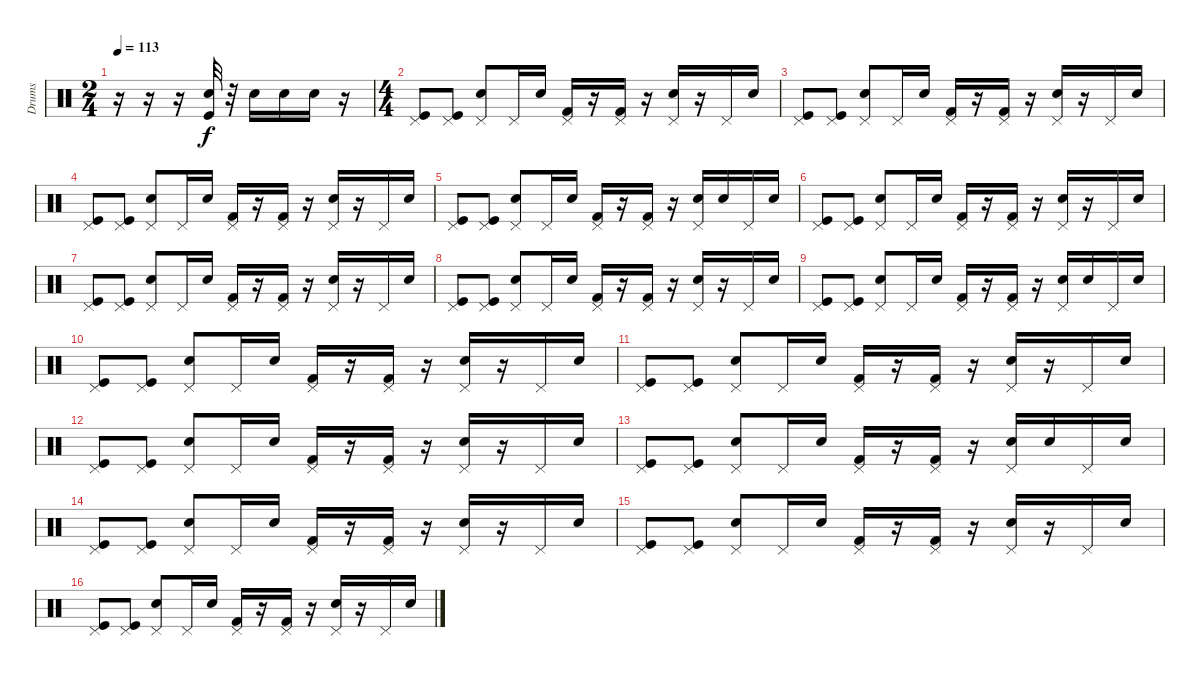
\track ("Drums" "Drums") {instrument percussion}
\staff {score}
\articulation defaults
\ts (2 4)
\tempo 113
\clef neutral
\ks c
r.16{dy f} r.16 r.16 ("Electric Snare (hit)" "Kick (hit)").32 r.32 "Electric Snare (hit)".16 "Electric Snare (hit)".16 "Electric Snare (hit)".16 r.16 |
\ts (4 4)
("Pedal Hi-Hat (hit)" "Kick (hit)").8 ("Pedal Hi-Hat (hit)" "Kick (hit)").8 ("Pedal Hi-Hat (hit)" "Electric Snare (hit)").8 "Pedal Hi-Hat (hit)".16 "Electric Snare (hit)".16 ("Pedal Hi-Hat (hit)" "Kick (hit) 2").16 r.16 ("Pedal Hi-Hat (hit)" "Kick (hit) 2").16 r.16 ("Pedal Hi-Hat (hit)" "Electric Snare (hit)").16 r.16 "Pedal Hi-Hat (hit)".16 "Electric Snare (hit)".16 |
("Pedal Hi-Hat (hit)" "Kick (hit)").8 ("Pedal Hi-Hat (hit)" "Kick (hit)").8 ("Pedal Hi-Hat (hit)" "Electric Snare (hit)").8 "Pedal Hi-Hat (hit)".16 "Electric Snare (hit)".16 ("Pedal Hi-Hat (hit)" "Kick (hit) 2").16 r.16 ("Pedal Hi-Hat (hit)" "Kick (hit) 2").16 r.16 ("Pedal Hi-Hat (hit)" "Electric Snare (hit)").16 r.16 "Pedal Hi-Hat (hit)".16 "Electric Snare (hit)".16 |
("Pedal Hi-Hat (hit)" "Kick (hit)").8 ("Pedal Hi-Hat (hit)" "Kick (hit)").8 ("Pedal Hi-Hat (hit)" "Electric Snare (hit)").8 "Pedal Hi-Hat (hit)".16 "Electric Snare (hit)".16 ("Pedal Hi-Hat (hit)" "Kick (hit) 2").16 r.16 ("Pedal Hi-Hat (hit)" "Kick (hit) 2").16 r.16 ("Pedal Hi-Hat (hit)" "Electric Snare (hit)").16 r.16 "Pedal Hi-Hat (hit)".16 "Electric Snare (hit)".16 |
("Pedal Hi-Hat (hit)" "Kick (hit)").8 ("Pedal Hi-Hat (hit)" "Kick (hit)").8 ("Pedal Hi-Hat (hit)" "Electric Snare (hit)").8 "Pedal Hi-Hat (hit)".16 "Electric Snare (hit)".16 ("Pedal Hi-Hat (hit)" "Kick (hit) 2").16 r.16 ("Pedal Hi-Hat (hit)" "Kick (hit) 2").16 r.16 ("Pedal Hi-Hat (hit)" "Electric Snare (hit)").16 "Electric Snare (hit)".16 "Pedal Hi-Hat (hit)".16 "Electric Snare (hit)".16 |
("Pedal Hi-Hat (hit)" "Kick (hit)").8 ("Pedal Hi-Hat (hit)" "Kick (hit)").8 ("Pedal Hi-Hat (hit)" "Electric Snare (hit)").8 "Pedal Hi-Hat (hit)".16 "Electric Snare (hit)".16 ("Pedal Hi-Hat (hit)" "Kick (hit) 2").16 r.16 ("Pedal Hi-Hat (hit)" "Kick (hit) 2").16 r.16 ("Pedal Hi-Hat (hit)" "Electric Snare (hit)").16 r.16 "Pedal Hi-Hat (hit)".16 "Electric Snare (hit)".16 |
("Pedal Hi-Hat (hit)" "Kick (hit)").8 ("Pedal Hi-Hat (hit)" "Kick (hit)").8 ("Pedal Hi-Hat (hit)" "Electric Snare (hit)").8 "Pedal Hi-Hat (hit)".16 "Electric Snare (hit)".16 ("Pedal Hi-Hat (hit)" "Kick (hit) 2").16 r.16 ("Pedal Hi-Hat (hit)" "Kick (hit) 2").16 r.16 ("Pedal Hi-Hat (hit)" "Electric Snare (hit)").16 r.16 "Pedal Hi-Hat (hit)".16 "Electric Snare (hit)".16 |
("Pedal Hi-Hat (hit)" "Kick (hit)").8 ("Pedal Hi-Hat (hit)" "Kick (hit)").8 ("Pedal Hi-Hat (hit)" "Electric Snare (hit)").8 "Pedal Hi-Hat (hit)".16 "Electric Snare (hit)".16 ("Pedal Hi-Hat (hit)" "Kick (hit) 2").16 r.16 ("Pedal Hi-Hat (hit)" "Kick (hit) 2").16 r.16 ("Pedal Hi-Hat (hit)" "Electric Snare (hit)").16 r.16 "Pedal Hi-Hat (hit)".16 "Electric Snare (hit)".16 |
("Pedal Hi-Hat (hit)" "Kick (hit)").8 ("Pedal Hi-Hat (hit)" "Kick (hit)").8 ("Pedal Hi-Hat (hit)" "Electric Snare (hit)").8 "Pedal Hi-Hat (hit)".16 "Electric Snare (hit)".16 ("Pedal Hi-Hat (hit)" "Kick (hit) 2").16 r.16 ("Pedal Hi-Hat (hit)" "Kick (hit) 2").16 r.16 ("Pedal Hi-Hat (hit)" "Electric Snare (hit)").16 "Electric Snare (hit)".16 "Pedal Hi-Hat (hit)".16 "Electric Snare (hit)".16 |
("Pedal Hi-Hat (hit)" "Kick (hit)").8 ("Pedal Hi-Hat (hit)" "Kick (hit)").8 ("Pedal Hi-Hat (hit)" "Electric Snare (hit)").8 "Pedal Hi-Hat (hit)".16 "Electric Snare (hit)".16 ("Pedal Hi-Hat (hit)" "Kick (hit) 2").16 r.16 ("Pedal Hi-Hat (hit)" "Kick (hit) 2").16 r.16 ("Pedal Hi-Hat (hit)" "Electric Snare (hit)").16 r.16 "Pedal Hi-Hat (hit)".16 "Electric Snare (hit)".16 |
("Pedal Hi-Hat (hit)" "Kick (hit)").8 ("Pedal Hi-Hat (hit)" "Kick (hit)").8 ("Pedal Hi-Hat (hit)" "Electric Snare (hit)").8 "Pedal Hi-Hat (hit)".16 "Electric Snare (hit)".16 ("Pedal Hi-Hat (hit)" "Kick (hit) 2").16 r.16 ("Pedal Hi-Hat (hit)" "Kick (hit) 2").16 r.16 ("Pedal Hi-Hat (hit)" "Electric Snare (hit)").16 r.16 "Pedal Hi-Hat (hit)".16 "Electric Snare (hit)".16 |
("Pedal Hi-Hat (hit)" "Kick (hit)").8 ("Pedal Hi-Hat (hit)" "Kick (hit)").8 ("Pedal Hi-Hat (hit)" "Electric Snare (hit)").8 "Pedal Hi-Hat (hit)".16 "Electric Snare (hit)".16 ("Pedal Hi-Hat (hit)" "Kick (hit) 2").16 r.16 ("Pedal Hi-Hat (hit)" "Kick (hit) 2").16 r.16 ("Pedal Hi-Hat (hit)" "Electric Snare (hit)").16 r.16 "Pedal Hi-Hat (hit)".16 "Electric Snare (hit)".16 |
("Pedal Hi-Hat (hit)" "Kick (hit)").8 ("Pedal Hi-Hat (hit)" "Kick (hit)").8 ("Pedal Hi-Hat (hit)" "Electric Snare (hit)").8 "Pedal Hi-Hat (hit)".16 "Electric Snare (hit)".16 ("Pedal Hi-Hat (hit)" "Kick (hit) 2").16 r.16 ("Pedal Hi-Hat (hit)" "Kick (hit) 2").16 r.16 ("Pedal Hi-Hat (hit)" "Electric Snare (hit)").16 "Electric Snare (hit)".16 "Pedal Hi-Hat (hit)".16 "Electric Snare (hit)".16 |
("Pedal Hi-Hat (hit)" "Kick (hit)").8 ("Pedal Hi-Hat (hit)" "Kick (hit)").8 ("Pedal Hi-Hat (hit)" "Electric Snare (hit)").8 "Pedal Hi-Hat (hit)".16 "Electric Snare (hit)".16 ("Pedal Hi-Hat (hit)" "Kick (hit) 2").16 r.16 ("Pedal Hi-Hat (hit)" "Kick (hit) 2").16 r.16 ("Pedal Hi-Hat (hit)" "Electric Snare (hit)").16 r.16 "Pedal Hi-Hat (hit)".16 "Electric Snare (hit)".16 |
("Pedal Hi-Hat (hit)" "Kick (hit)").8 ("Pedal Hi-Hat (hit)" "Kick (hit)").8 ("Pedal Hi-Hat (hit)" "Electric Snare (hit)").8 "Pedal Hi-Hat (hit)".16 "Electric Snare (hit)".16 ("Pedal Hi-Hat (hit)" "Kick (hit) 2").16 r.16 ("Pedal Hi-Hat (hit)" "Kick (hit) 2").16 r.16 ("Pedal Hi-Hat (hit)" "Electric Snare (hit)").16 r.16 "Pedal Hi-Hat (hit)".16 "Electric Snare (hit)".16 |
("Pedal Hi-Hat (hit)" "Kick (hit)").8 ("Pedal Hi-Hat (hit)" "Kick (hit)").8 ("Pedal Hi-Hat (hit)" "Electric Snare (hit)").8 "Pedal Hi-Hat (hit)".16 "Electric Snare (hit)".16 ("Pedal Hi-Hat (hit)" "Kick (hit) 2").16 r.16 ("Pedal Hi-Hat (hit)" "Kick (hit) 2").16 r.16 ("Pedal Hi-Hat (hit)" "Electric Snare (hit)").16 r.16 "Pedal Hi-Hat (hit)".16 "Electric Snare (hit)".16
